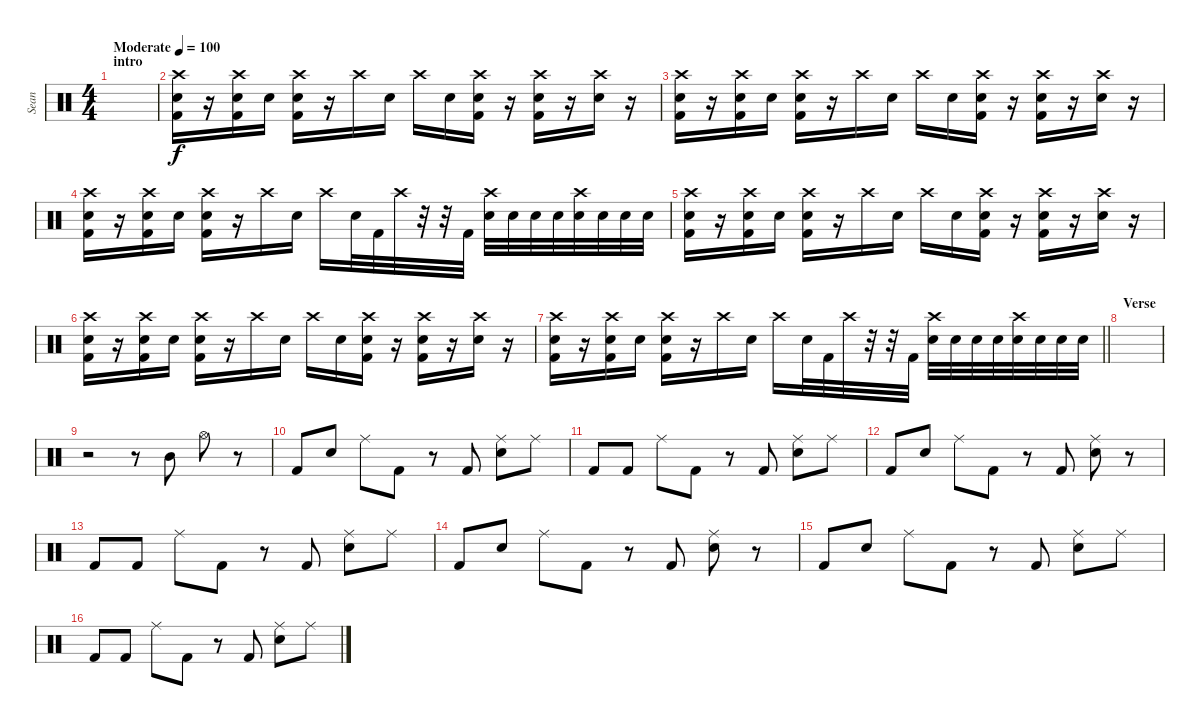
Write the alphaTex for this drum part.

\track ("Sean" "Sean") {instrument percussion}
\staff {score}
\articulation defaults
\ts (4 4)
\section ("" "intro")
\tempo (100 "Moderate")
\clef neutral
\ks c
|
("Crash high (hit)" "Snare (hit) 2" "Kick (hit) 2").16 r.16 ("Crash high (hit)" "Snare (hit) 2" "Kick (hit) 2").16 "Snare (hit) 2".16 ("Crash high (hit)" "Snare (hit) 2" "Kick (hit) 2").16 r.16 "Crash high (hit)".16 "Snare (hit) 2".16 "Crash high (hit)".16 "Snare (hit) 2".16 ("Crash high (hit)" "Snare (hit) 2" "Kick (hit) 2").16 r.16 ("Crash high (hit)" "Snare (hit) 2" "Kick (hit) 2").16 r.16 ("Crash high (hit)" "Snare (hit) 2").16 r.16 |
("Crash high (hit)" "Snare (hit) 2" "Kick (hit) 2").16 r.16 ("Crash high (hit)" "Snare (hit) 2" "Kick (hit) 2").16 "Snare (hit) 2".16 ("Crash high (hit)" "Snare (hit) 2" "Kick (hit) 2").16 r.16 "Crash high (hit)".16 "Snare (hit) 2".16 "Crash high (hit)".16 "Snare (hit) 2".16 ("Crash high (hit)" "Snare (hit) 2" "Kick (hit) 2").16 r.16 ("Crash high (hit)" "Snare (hit) 2" "Kick (hit) 2").16 r.16 ("Crash high (hit)" "Snare (hit) 2").16 r.16 |
("Crash high (hit)" "Snare (hit) 2" "Kick (hit) 2").16 r.16 ("Crash high (hit)" "Snare (hit) 2" "Kick (hit) 2").16 "Snare (hit) 2".16 ("Crash high (hit)" "Snare (hit) 2" "Kick (hit) 2").16 r.16 "Crash high (hit)".16 "Snare (hit) 2".16 "Crash high (hit)".16 "Snare (hit) 2".32 "Kick (hit) 2".32 "Crash high (hit)".32 r.32 r.32 "Kick (hit) 2".32 ("Crash high (hit)" "Snare (hit) 2").32 "Snare (hit) 2".32 "Snare (hit) 2".32 "Snare (hit) 2".32 ("Crash high (hit)" "Snare (hit) 2").32 "Snare (hit) 2".32 "Snare (hit) 2".32 "Snare (hit) 2".32 |
("Crash high (hit)" "Snare (hit) 2" "Kick (hit) 2").16 r.16 ("Crash high (hit)" "Snare (hit) 2" "Kick (hit) 2").16 "Snare (hit) 2".16 ("Crash high (hit)" "Snare (hit) 2" "Kick (hit) 2").16 r.16 "Crash high (hit)".16 "Snare (hit) 2".16 "Crash high (hit)".16 "Snare (hit) 2".16 ("Crash high (hit)" "Snare (hit) 2" "Kick (hit) 2").16 r.16 ("Crash high (hit)" "Snare (hit) 2" "Kick (hit) 2").16 r.16 ("Crash high (hit)" "Snare (hit) 2").16 r.16 |
("Crash high (hit)" "Snare (hit) 2" "Kick (hit) 2").16 r.16 ("Crash high (hit)" "Snare (hit) 2" "Kick (hit) 2").16 "Snare (hit) 2".16 ("Crash high (hit)" "Snare (hit) 2" "Kick (hit) 2").16 r.16 "Crash high (hit)".16 "Snare (hit) 2".16 "Crash high (hit)".16 "Snare (hit) 2".16 ("Crash high (hit)" "Snare (hit) 2" "Kick (hit) 2").16 r.16 ("Crash high (hit)" "Snare (hit) 2" "Kick (hit) 2").16 r.16 ("Crash high (hit)" "Snare (hit) 2").16 r.16 |
\barLineRight lightlight
("Crash high (hit)" "Snare (hit) 2" "Kick (hit) 2").16 r.16 ("Crash high (hit)" "Snare (hit) 2" "Kick (hit) 2").16 "Snare (hit) 2".16 ("Crash high (hit)" "Snare (hit) 2" "Kick (hit) 2").16 r.16 "Crash high (hit)".16 "Snare (hit) 2".16 "Crash high (hit)".16 "Snare (hit) 2".32 "Kick (hit) 2".32 "Crash high (hit)".32 r.32 r.32 "Kick (hit) 2".32 ("Crash high (hit)" "Snare (hit) 2").32 "Snare (hit) 2".32 "Snare (hit) 2".32 "Snare (hit) 2".32 ("Crash high (hit)" "Snare (hit) 2").32 "Snare (hit) 2".32 "Snare (hit) 2".32 "Snare (hit) 2".32 |
\section ("" "Verse")
|
r.2 r.8 "Mid Tom (hit)".8 "Hi-Hat (open)".8 r.8 |
"Kick (hit) 2".8 "Snare (hit) 2".8 "Ride (middle)".8 "Kick (hit) 2".8 r.8 "Kick (hit) 2".8 ("Ride (middle)" "Snare (hit) 2").8 "Ride (middle)".8 |
"Kick (hit) 2".8 "Kick (hit) 2".8 "Ride (middle)".8 "Kick (hit) 2".8 r.8 "Kick (hit) 2".8 ("Ride (middle)" "Snare (hit) 2").8 "Ride (middle)".8 |
"Kick (hit) 2".8 "Snare (hit) 2".8 "Ride (middle)".8 "Kick (hit) 2".8 r.8 "Kick (hit) 2".8 ("Ride (middle)" "Snare (hit) 2").8 r.8 |
"Kick (hit) 2".8 "Kick (hit) 2".8 "Ride (middle)".8 "Kick (hit) 2".8 r.8 "Kick (hit) 2".8 ("Ride (middle)" "Snare (hit) 2").8 "Ride (middle)".8 |
"Kick (hit) 2".8 "Snare (hit) 2".8 "Ride (middle)".8 "Kick (hit) 2".8 r.8 "Kick (hit) 2".8 ("Ride (middle)" "Snare (hit) 2").8 r.8 |
"Kick (hit) 2".8 "Snare (hit) 2".8 "Ride (middle)".8 "Kick (hit) 2".8 r.8 "Kick (hit) 2".8 ("Ride (middle)" "Snare (hit) 2").8 "Ride (middle)".8 |
"Kick (hit) 2".8 "Kick (hit) 2".8 "Ride (middle)".8 "Kick (hit) 2".8 r.8 "Kick (hit) 2".8 ("Ride (middle)" "Snare (hit) 2").8 "Ride (middle)".8
